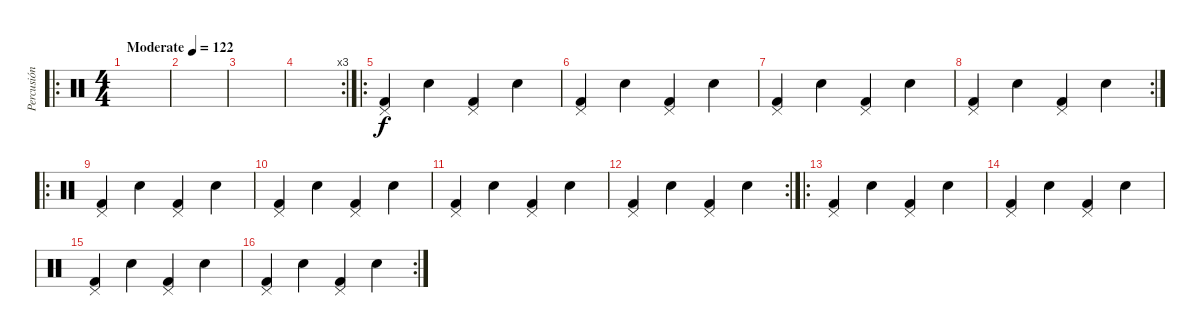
\track ("Percusión" "Percusión") {instrument percussion}
\staff {score}
\articulation defaults
\ro
\ts (4 4)
\tempo (122 "Moderate")
\clef neutral
\ks c
|
|
|
\rc 3
|
\ro
("Pedal Hi-Hat (hit)" "Kick (hit) 2").4 "Electric Snare (hit)".4 ("Pedal Hi-Hat (hit)" "Kick (hit) 2").4 "Electric Snare (hit)".4 |
("Pedal Hi-Hat (hit)" "Kick (hit) 2").4 "Electric Snare (hit)".4 ("Pedal Hi-Hat (hit)" "Kick (hit) 2").4 "Electric Snare (hit)".4 |
("Pedal Hi-Hat (hit)" "Kick (hit) 2").4 "Electric Snare (hit)".4 ("Pedal Hi-Hat (hit)" "Kick (hit) 2").4 "Electric Snare (hit)".4 |
\rc 2
("Pedal Hi-Hat (hit)" "Kick (hit) 2").4 "Electric Snare (hit)".4 ("Pedal Hi-Hat (hit)" "Kick (hit) 2").4 "Electric Snare (hit)".4 |
\ro
("Pedal Hi-Hat (hit)" "Kick (hit) 2").4 "Electric Snare (hit)".4 ("Pedal Hi-Hat (hit)" "Kick (hit) 2").4 "Electric Snare (hit)".4 |
("Pedal Hi-Hat (hit)" "Kick (hit) 2").4 "Electric Snare (hit)".4 ("Pedal Hi-Hat (hit)" "Kick (hit) 2").4 "Electric Snare (hit)".4 |
("Pedal Hi-Hat (hit)" "Kick (hit) 2").4 "Electric Snare (hit)".4 ("Pedal Hi-Hat (hit)" "Kick (hit) 2").4 "Electric Snare (hit)".4 |
\rc 2
("Pedal Hi-Hat (hit)" "Kick (hit) 2").4 "Electric Snare (hit)".4 ("Pedal Hi-Hat (hit)" "Kick (hit) 2").4 "Electric Snare (hit)".4 |
\ro
("Pedal Hi-Hat (hit)" "Kick (hit) 2").4 "Electric Snare (hit)".4 ("Pedal Hi-Hat (hit)" "Kick (hit) 2").4 "Electric Snare (hit)".4 |
("Pedal Hi-Hat (hit)" "Kick (hit) 2").4 "Electric Snare (hit)".4 ("Pedal Hi-Hat (hit)" "Kick (hit) 2").4 "Electric Snare (hit)".4 |
("Pedal Hi-Hat (hit)" "Kick (hit) 2").4 "Electric Snare (hit)".4 ("Pedal Hi-Hat (hit)" "Kick (hit) 2").4 "Electric Snare (hit)".4 |
\rc 2
("Pedal Hi-Hat (hit)" "Kick (hit) 2").4 "Electric Snare (hit)".4 ("Pedal Hi-Hat (hit)" "Kick (hit) 2").4 "Electric Snare (hit)".4
